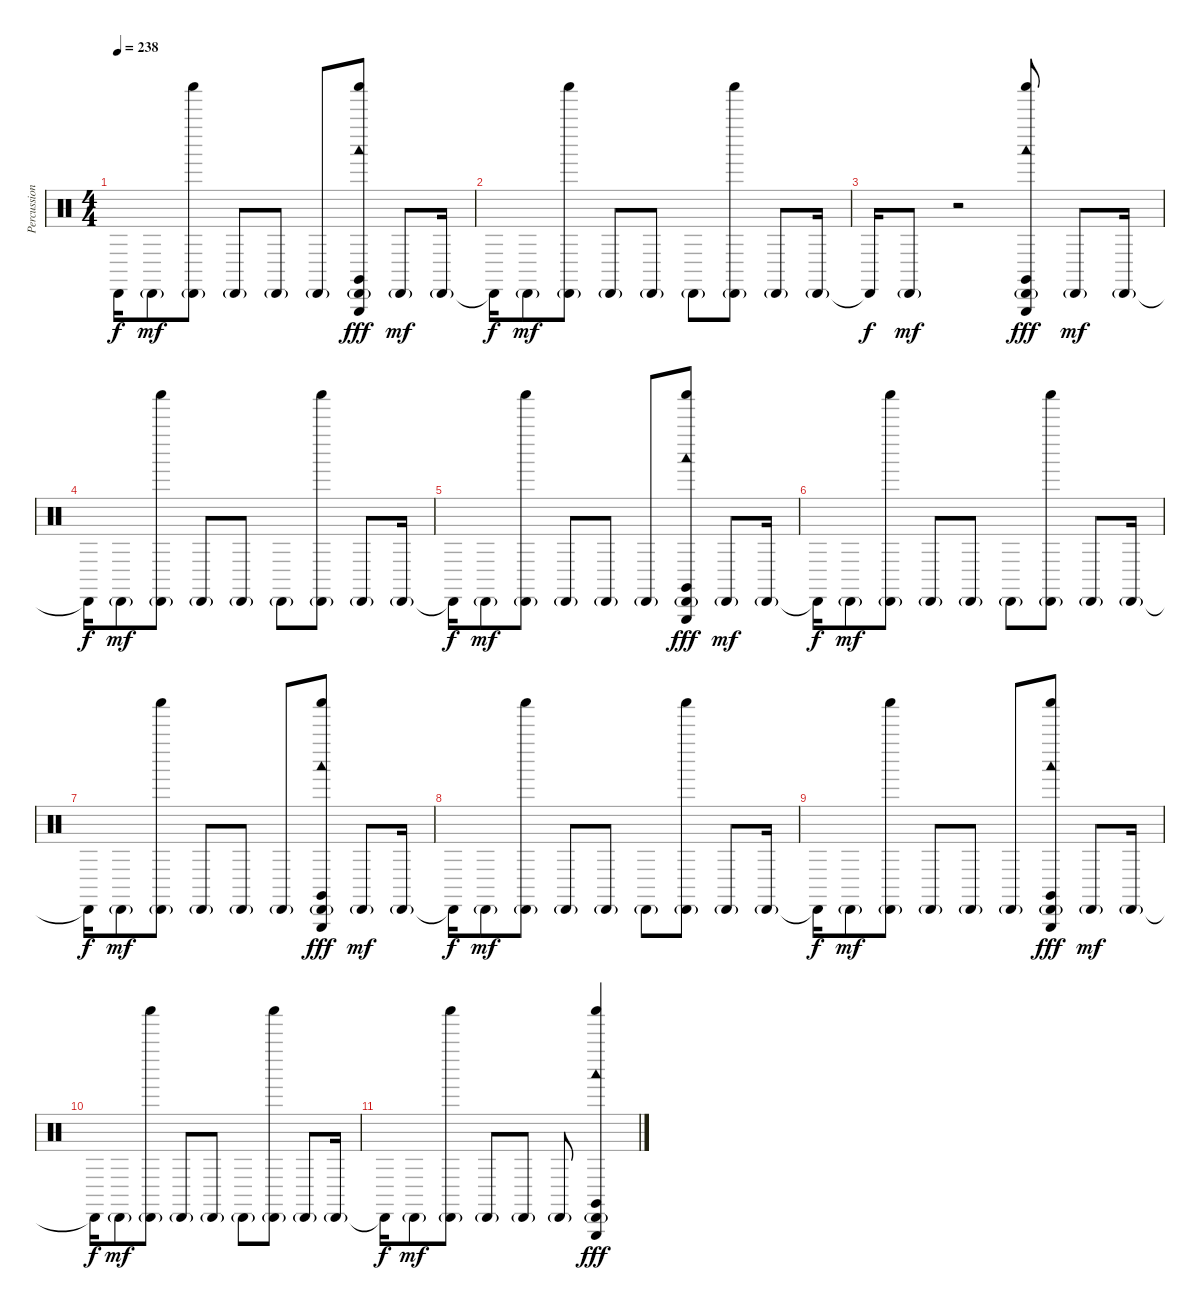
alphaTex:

\track ("Percussion" "Percussion") {instrument percussion}
\staff {score}
\articulation defaults
\ts (4 4)
\tempo 238
\clef neutral
\ks c "Cabasa (hit)"{t}.16{dy f} "Cabasa (hit)"{g}.8{dy mf}
("Shaker (hit)" "Cabasa (hit)"{g}).8 "Cabasa (hit)"{g}.8 "Cabasa (hit)"{g}.8 "Cabasa (hit)"{g}.8 ("Shaker (hit)" "Cabasa (hit)"{g} "Claves (hit)" "Woodblock low (hit)" "Triangle (hit)").8{dy fff} "Cabasa (hit)"{g}.8{dy mf} "Cabasa (hit)"{g}.16 |
"Cabasa (hit)"{t}.16{dy f} "Cabasa (hit)"{g}.8{dy mf} ("Shaker (hit)" "Cabasa (hit)"{g}).8 "Cabasa (hit)"{g}.8 "Cabasa (hit)"{g}.8 "Cabasa (hit)"{g}.8 ("Shaker (hit)" "Cabasa (hit)"{g}).8 "Cabasa (hit)"{g}.8 "Cabasa (hit)"{g}.16 |
"Cabasa (hit)"{t}.16{dy f} "Cabasa (hit)"{g}.8{dy mf} r.2 ("Shaker (hit)" "Cabasa (hit)"{g} "Claves (hit)" "Woodblock low (hit)" "Triangle (hit)").8{dy fff} "Cabasa (hit)"{g}.8{dy mf} "Cabasa (hit)"{g}.16 |
"Cabasa (hit)"{t}.16{dy f} "Cabasa (hit)"{g}.8{dy mf} ("Shaker (hit)" "Cabasa (hit)"{g}).8 "Cabasa (hit)"{g}.8 "Cabasa (hit)"{g}.8 "Cabasa (hit)"{g}.8 ("Shaker (hit)" "Cabasa (hit)"{g}).8 "Cabasa (hit)"{g}.8 "Cabasa (hit)"{g}.16 |
"Cabasa (hit)"{t}.16{dy f} "Cabasa (hit)"{g}.8{dy mf} ("Shaker (hit)" "Cabasa (hit)"{g}).8 "Cabasa (hit)"{g}.8 "Cabasa (hit)"{g}.8 "Cabasa (hit)"{g}.8 ("Shaker (hit)" "Cabasa (hit)"{g} "Claves (hit)" "Woodblock low (hit)" "Triangle (hit)").8{dy fff} "Cabasa (hit)"{g}.8{dy mf} "Cabasa (hit)"{g}.16 |
"Cabasa (hit)"{t}.16{dy f} "Cabasa (hit)"{g}.8{dy mf} ("Shaker (hit)" "Cabasa (hit)"{g}).8 "Cabasa (hit)"{g}.8 "Cabasa (hit)"{g}.8 "Cabasa (hit)"{g}.8 ("Shaker (hit)" "Cabasa (hit)"{g}).8 "Cabasa (hit)"{g}.8 "Cabasa (hit)"{g}.16 |
"Cabasa (hit)"{t}.16{dy f} "Cabasa (hit)"{g}.8{dy mf} ("Shaker (hit)" "Cabasa (hit)"{g}).8 "Cabasa (hit)"{g}.8 "Cabasa (hit)"{g}.8 "Cabasa (hit)"{g}.8 ("Shaker (hit)" "Cabasa (hit)"{g} "Claves (hit)" "Woodblock low (hit)" "Triangle (hit)").8{dy fff} "Cabasa (hit)"{g}.8{dy mf} "Cabasa (hit)"{g}.16 |
"Cabasa (hit)"{t}.16{dy f} "Cabasa (hit)"{g}.8{dy mf} ("Shaker (hit)" "Cabasa (hit)"{g}).8 "Cabasa (hit)"{g}.8 "Cabasa (hit)"{g}.8 "Cabasa (hit)"{g}.8 ("Shaker (hit)" "Cabasa (hit)"{g}).8 "Cabasa (hit)"{g}.8 "Cabasa (hit)"{g}.16 |
"Cabasa (hit)"{t}.16{dy f} "Cabasa (hit)"{g}.8{dy mf} ("Shaker (hit)" "Cabasa (hit)"{g}).8 "Cabasa (hit)"{g}.8 "Cabasa (hit)"{g}.8 "Cabasa (hit)"{g}.8 ("Shaker (hit)" "Cabasa (hit)"{g} "Claves (hit)" "Woodblock low (hit)" "Triangle (hit)").8{dy fff} "Cabasa (hit)"{g}.8{dy mf} "Cabasa (hit)"{g}.16 |
"Cabasa (hit)"{t}.16{dy f} "Cabasa (hit)"{g}.8{dy mf} ("Shaker (hit)" "Cabasa (hit)"{g}).8 "Cabasa (hit)"{g}.8 "Cabasa (hit)"{g}.8 "Cabasa (hit)"{g}.8 ("Shaker (hit)" "Cabasa (hit)"{g}).8 "Cabasa (hit)"{g}.8 "Cabasa (hit)"{g}.16 |
"Cabasa (hit)"{t}.16{dy f} "Cabasa (hit)"{g}.8{dy mf} ("Shaker (hit)" "Cabasa (hit)"{g}).8 "Cabasa (hit)"{g}.8 "Cabasa (hit)"{g}.8 "Cabasa (hit)"{g}.8 ("Shaker (hit)" "Cabasa (hit)"{g} "Claves (hit)" "Woodblock low (hit)" "Triangle (hit)").4{dy fff}
